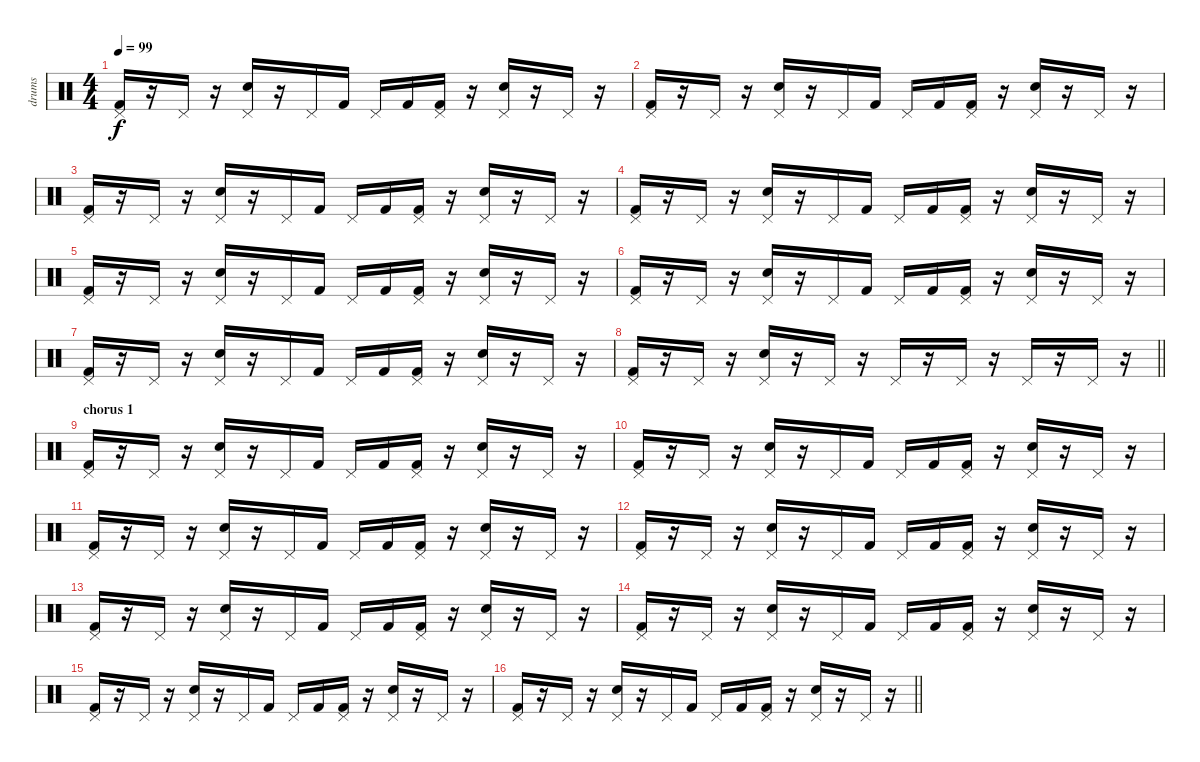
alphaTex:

\track ("drums" "drums") {instrument percussion}
\staff {score}
\articulation defaults
\ts (4 4)
\tempo 99
\clef neutral
\ks c
("Kick (hit) 2" "Pedal Hi-Hat (hit)").16{dy f} r.16 "Pedal Hi-Hat (hit)".16 r.16 ("Snare (hit) 2" "Pedal Hi-Hat (hit)").16 r.16 "Pedal Hi-Hat (hit)".16 "Kick (hit) 2".16 "Pedal Hi-Hat (hit)".16 "Kick (hit) 2".16 ("Kick (hit) 2" "Pedal Hi-Hat (hit)").16 r.16 ("Snare (hit) 2" "Pedal Hi-Hat (hit)").16 r.16 "Pedal Hi-Hat (hit)".16 r.16 |
("Kick (hit) 2" "Pedal Hi-Hat (hit)").16 r.16 "Pedal Hi-Hat (hit)".16 r.16 ("Snare (hit) 2" "Pedal Hi-Hat (hit)").16 r.16 "Pedal Hi-Hat (hit)".16 "Kick (hit) 2".16 "Pedal Hi-Hat (hit)".16 "Kick (hit) 2".16 ("Kick (hit) 2" "Pedal Hi-Hat (hit)").16 r.16 ("Snare (hit) 2" "Pedal Hi-Hat (hit)").16 r.16 "Pedal Hi-Hat (hit)".16 r.16 |
("Kick (hit) 2" "Pedal Hi-Hat (hit)").16 r.16 "Pedal Hi-Hat (hit)".16 r.16 ("Snare (hit) 2" "Pedal Hi-Hat (hit)").16 r.16 "Pedal Hi-Hat (hit)".16 "Kick (hit) 2".16 "Pedal Hi-Hat (hit)".16 "Kick (hit) 2".16 ("Kick (hit) 2" "Pedal Hi-Hat (hit)").16 r.16 ("Snare (hit) 2" "Pedal Hi-Hat (hit)").16 r.16 "Pedal Hi-Hat (hit)".16 r.16 |
("Kick (hit) 2" "Pedal Hi-Hat (hit)").16 r.16 "Pedal Hi-Hat (hit)".16 r.16 ("Snare (hit) 2" "Pedal Hi-Hat (hit)").16 r.16 "Pedal Hi-Hat (hit)".16 "Kick (hit) 2".16 "Pedal Hi-Hat (hit)".16 "Kick (hit) 2".16 ("Kick (hit) 2" "Pedal Hi-Hat (hit)").16 r.16 ("Snare (hit) 2" "Pedal Hi-Hat (hit)").16 r.16 "Pedal Hi-Hat (hit)".16 r.16 |
("Kick (hit) 2" "Pedal Hi-Hat (hit)").16 r.16 "Pedal Hi-Hat (hit)".16 r.16 ("Snare (hit) 2" "Pedal Hi-Hat (hit)").16 r.16 "Pedal Hi-Hat (hit)".16 "Kick (hit) 2".16 "Pedal Hi-Hat (hit)".16 "Kick (hit) 2".16 ("Kick (hit) 2" "Pedal Hi-Hat (hit)").16 r.16 ("Snare (hit) 2" "Pedal Hi-Hat (hit)").16 r.16 "Pedal Hi-Hat (hit)".16 r.16 |
("Kick (hit) 2" "Pedal Hi-Hat (hit)").16 r.16 "Pedal Hi-Hat (hit)".16 r.16 ("Snare (hit) 2" "Pedal Hi-Hat (hit)").16 r.16 "Pedal Hi-Hat (hit)".16 "Kick (hit) 2".16 "Pedal Hi-Hat (hit)".16 "Kick (hit) 2".16 ("Kick (hit) 2" "Pedal Hi-Hat (hit)").16 r.16 ("Snare (hit) 2" "Pedal Hi-Hat (hit)").16 r.16 "Pedal Hi-Hat (hit)".16 r.16 |
("Kick (hit) 2" "Pedal Hi-Hat (hit)").16 r.16 "Pedal Hi-Hat (hit)".16 r.16 ("Snare (hit) 2" "Pedal Hi-Hat (hit)").16 r.16 "Pedal Hi-Hat (hit)".16 "Kick (hit) 2".16 "Pedal Hi-Hat (hit)".16 "Kick (hit) 2".16 ("Kick (hit) 2" "Pedal Hi-Hat (hit)").16 r.16 ("Snare (hit) 2" "Pedal Hi-Hat (hit)").16 r.16 "Pedal Hi-Hat (hit)".16 r.16 |
\barLineRight lightlight
("Kick (hit) 2" "Pedal Hi-Hat (hit)").16 r.16 "Pedal Hi-Hat (hit)".16 r.16 ("Snare (hit) 2" "Pedal Hi-Hat (hit)").16 r.16 "Pedal Hi-Hat (hit)".16 r.16 "Pedal Hi-Hat (hit)".16 r.16 "Pedal Hi-Hat (hit)".16 r.16 "Pedal Hi-Hat (hit)".16 r.16 "Pedal Hi-Hat (hit)".16 r.16 |
\section ("" "chorus 1")
("Kick (hit) 2" "Pedal Hi-Hat (hit)").16 r.16 "Pedal Hi-Hat (hit)".16 r.16 ("Snare (hit) 2" "Pedal Hi-Hat (hit)").16 r.16 "Pedal Hi-Hat (hit)".16 "Kick (hit) 2".16 "Pedal Hi-Hat (hit)".16 "Kick (hit) 2".16 ("Kick (hit) 2" "Pedal Hi-Hat (hit)").16 r.16 ("Snare (hit) 2" "Pedal Hi-Hat (hit)").16 r.16 "Pedal Hi-Hat (hit)".16 r.16 |
("Kick (hit) 2" "Pedal Hi-Hat (hit)").16 r.16 "Pedal Hi-Hat (hit)".16 r.16 ("Snare (hit) 2" "Pedal Hi-Hat (hit)").16 r.16 "Pedal Hi-Hat (hit)".16 "Kick (hit) 2".16 "Pedal Hi-Hat (hit)".16 "Kick (hit) 2".16 ("Kick (hit) 2" "Pedal Hi-Hat (hit)").16 r.16 ("Snare (hit) 2" "Pedal Hi-Hat (hit)").16 r.16 "Pedal Hi-Hat (hit)".16 r.16 |
("Kick (hit) 2" "Pedal Hi-Hat (hit)").16 r.16 "Pedal Hi-Hat (hit)".16 r.16 ("Snare (hit) 2" "Pedal Hi-Hat (hit)").16 r.16 "Pedal Hi-Hat (hit)".16 "Kick (hit) 2".16 "Pedal Hi-Hat (hit)".16 "Kick (hit) 2".16 ("Kick (hit) 2" "Pedal Hi-Hat (hit)").16 r.16 ("Snare (hit) 2" "Pedal Hi-Hat (hit)").16 r.16 "Pedal Hi-Hat (hit)".16 r.16 |
("Kick (hit) 2" "Pedal Hi-Hat (hit)").16 r.16 "Pedal Hi-Hat (hit)".16 r.16 ("Snare (hit) 2" "Pedal Hi-Hat (hit)").16 r.16 "Pedal Hi-Hat (hit)".16 "Kick (hit) 2".16 "Pedal Hi-Hat (hit)".16 "Kick (hit) 2".16 ("Kick (hit) 2" "Pedal Hi-Hat (hit)").16 r.16 ("Snare (hit) 2" "Pedal Hi-Hat (hit)").16 r.16 "Pedal Hi-Hat (hit)".16 r.16 |
("Kick (hit) 2" "Pedal Hi-Hat (hit)").16 r.16 "Pedal Hi-Hat (hit)".16 r.16 ("Snare (hit) 2" "Pedal Hi-Hat (hit)").16 r.16 "Pedal Hi-Hat (hit)".16 "Kick (hit) 2".16 "Pedal Hi-Hat (hit)".16 "Kick (hit) 2".16 ("Kick (hit) 2" "Pedal Hi-Hat (hit)").16 r.16 ("Snare (hit) 2" "Pedal Hi-Hat (hit)").16 r.16 "Pedal Hi-Hat (hit)".16 r.16 |
("Kick (hit) 2" "Pedal Hi-Hat (hit)").16 r.16 "Pedal Hi-Hat (hit)".16 r.16 ("Snare (hit) 2" "Pedal Hi-Hat (hit)").16 r.16 "Pedal Hi-Hat (hit)".16 "Kick (hit) 2".16 "Pedal Hi-Hat (hit)".16 "Kick (hit) 2".16 ("Kick (hit) 2" "Pedal Hi-Hat (hit)").16 r.16 ("Snare (hit) 2" "Pedal Hi-Hat (hit)").16 r.16 "Pedal Hi-Hat (hit)".16 r.16 |
("Kick (hit) 2" "Pedal Hi-Hat (hit)").16 r.16 "Pedal Hi-Hat (hit)".16 r.16 ("Snare (hit) 2" "Pedal Hi-Hat (hit)").16 r.16 "Pedal Hi-Hat (hit)".16 "Kick (hit) 2".16 "Pedal Hi-Hat (hit)".16 "Kick (hit) 2".16 ("Kick (hit) 2" "Pedal Hi-Hat (hit)").16 r.16 ("Snare (hit) 2" "Pedal Hi-Hat (hit)").16 r.16 "Pedal Hi-Hat (hit)".16 r.16 |
\barLineRight lightlight
("Kick (hit) 2" "Pedal Hi-Hat (hit)").16 r.16 "Pedal Hi-Hat (hit)".16 r.16 ("Snare (hit) 2" "Pedal Hi-Hat (hit)").16 r.16 "Pedal Hi-Hat (hit)".16 "Kick (hit) 2".16 "Pedal Hi-Hat (hit)".16 "Kick (hit) 2".16 ("Kick (hit) 2" "Pedal Hi-Hat (hit)").16 r.16 ("Snare (hit) 2" "Pedal Hi-Hat (hit)").16 r.16 "Pedal Hi-Hat (hit)".16 r.16
